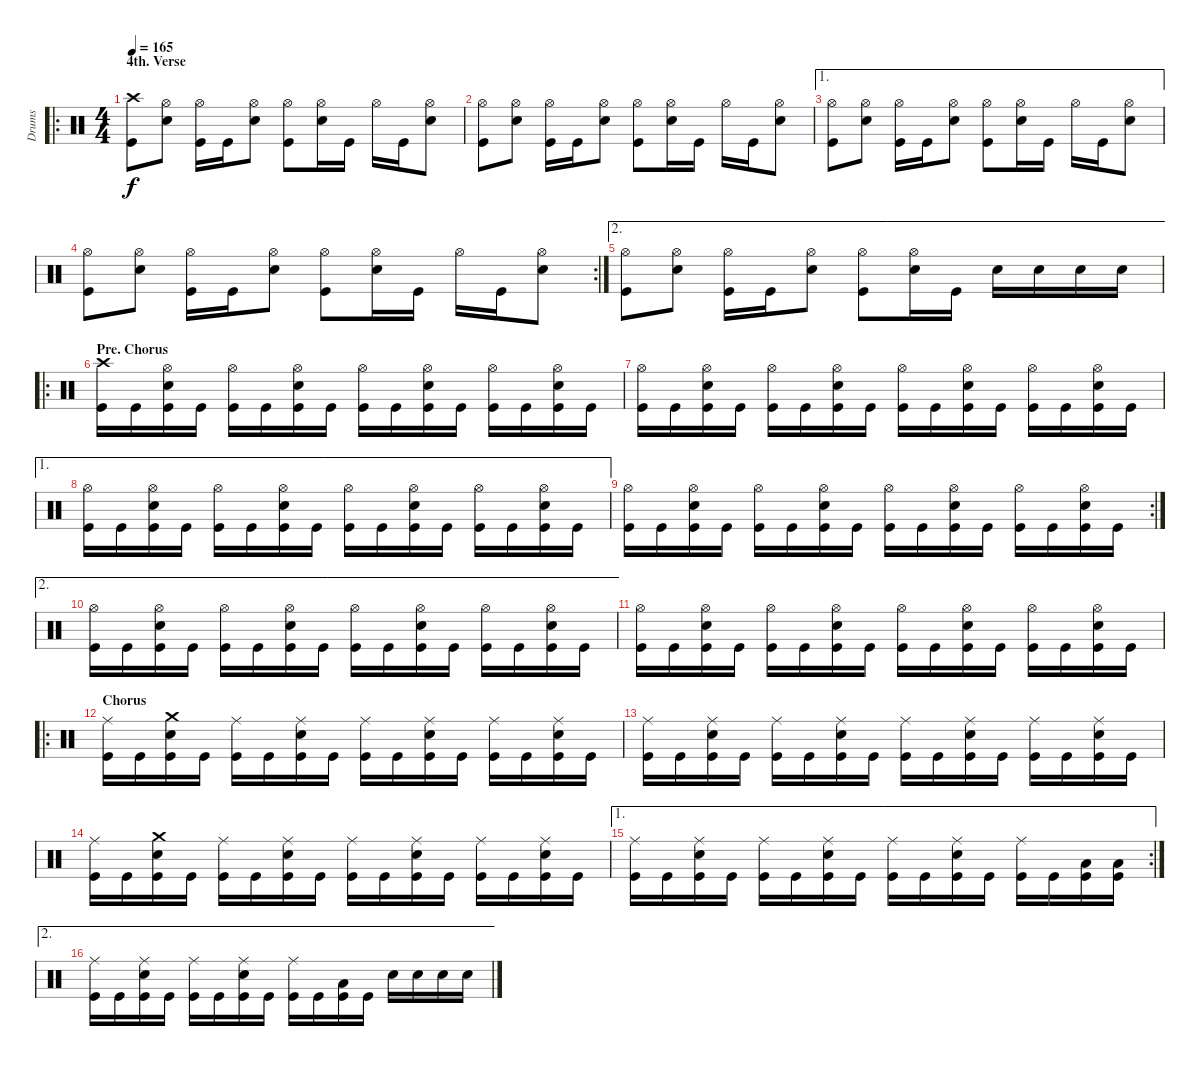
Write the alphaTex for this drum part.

\track ("Drums" "Drums") {instrument percussion}
\staff {score}
\articulation defaults
\ro
\ts (4 4)
\section ("" "4th. Verse")
\tempo 165
\clef neutral
\ks c
("Crash high (hit)" "Kick (hit)").8{dy f} ("Hi-Hat (open)" "Snare (hit) 2").8 ("Hi-Hat (open)" "Kick (hit)").16 "Kick (hit)".16 ("Hi-Hat (open)" "Snare (hit) 2").8 ("Hi-Hat (open)" "Kick (hit)").8 ("Hi-Hat (open)" "Snare (hit) 2").16 "Kick (hit)".16 "Hi-Hat (open)".16 "Kick (hit)".16 ("Hi-Hat (open)" "Snare (hit) 2").8 |
("Hi-Hat (open)" "Kick (hit)").8 ("Hi-Hat (open)" "Snare (hit) 2").8 ("Hi-Hat (open)" "Kick (hit)").16 "Kick (hit)".16 ("Hi-Hat (open)" "Snare (hit) 2").8 ("Hi-Hat (open)" "Kick (hit)").8 ("Hi-Hat (open)" "Snare (hit) 2").16 "Kick (hit)".16 "Hi-Hat (open)".16 "Kick (hit)".16 ("Hi-Hat (open)" "Snare (hit) 2").8 |
\ae 1
("Hi-Hat (open)" "Kick (hit)").8 ("Hi-Hat (open)" "Snare (hit) 2").8 ("Hi-Hat (open)" "Kick (hit)").16 "Kick (hit)".16 ("Hi-Hat (open)" "Snare (hit) 2").8 ("Hi-Hat (open)" "Kick (hit)").8 ("Hi-Hat (open)" "Snare (hit) 2").16 "Kick (hit)".16 "Hi-Hat (open)".16 "Kick (hit)".16 ("Hi-Hat (open)" "Snare (hit) 2").8 |
\rc 2
("Hi-Hat (open)" "Kick (hit)").8 ("Hi-Hat (open)" "Snare (hit) 2").8 ("Hi-Hat (open)" "Kick (hit)").16 "Kick (hit)".16 ("Hi-Hat (open)" "Snare (hit) 2").8 ("Hi-Hat (open)" "Kick (hit)").8 ("Hi-Hat (open)" "Snare (hit) 2").16 "Kick (hit)".16 "Hi-Hat (open)".16 "Kick (hit)".16 ("Hi-Hat (open)" "Snare (hit) 2").8 |
\ae 2
("Hi-Hat (open)" "Kick (hit)").8 ("Hi-Hat (open)" "Snare (hit) 2").8 ("Hi-Hat (open)" "Kick (hit)").16 "Kick (hit)".16 ("Hi-Hat (open)" "Snare (hit) 2").8 ("Hi-Hat (open)" "Kick (hit)").8 ("Hi-Hat (open)" "Snare (hit) 2").16 "Kick (hit)".16 "Snare (hit) 2".16 "Snare (hit) 2".16 "Snare (hit) 2".16 "Snare (hit) 2".16 |
\ro
\section ("" "Pre. Chorus")
("Crash high (hit)" "Kick (hit)").16 "Kick (hit)".16 ("Hi-Hat (open)" "Snare (hit) 2" "Kick (hit)").16 "Kick (hit)".16 ("Hi-Hat (open)" "Kick (hit)").16 "Kick (hit)".16 ("Hi-Hat (open)" "Snare (hit) 2" "Kick (hit)").16 "Kick (hit)".16 ("Hi-Hat (open)" "Kick (hit)").16 "Kick (hit)".16 ("Hi-Hat (open)" "Snare (hit) 2" "Kick (hit)").16 "Kick (hit)".16 ("Hi-Hat (open)" "Kick (hit)").16 "Kick (hit)".16 ("Hi-Hat (open)" "Snare (hit) 2" "Kick (hit)").16 "Kick (hit)".16 |
("Hi-Hat (open)" "Kick (hit)").16 "Kick (hit)".16 ("Hi-Hat (open)" "Snare (hit) 2" "Kick (hit)").16 "Kick (hit)".16 ("Hi-Hat (open)" "Kick (hit)").16 "Kick (hit)".16 ("Hi-Hat (open)" "Snare (hit) 2" "Kick (hit)").16 "Kick (hit)".16 ("Hi-Hat (open)" "Kick (hit)").16 "Kick (hit)".16 ("Hi-Hat (open)" "Snare (hit) 2" "Kick (hit)").16 "Kick (hit)".16 ("Hi-Hat (open)" "Kick (hit)").16 "Kick (hit)".16 ("Hi-Hat (open)" "Snare (hit) 2" "Kick (hit)").16 "Kick (hit)".16 |
\ae 1
("Hi-Hat (open)" "Kick (hit)").16 "Kick (hit)".16 ("Hi-Hat (open)" "Snare (hit) 2" "Kick (hit)").16 "Kick (hit)".16 ("Hi-Hat (open)" "Kick (hit)").16 "Kick (hit)".16 ("Hi-Hat (open)" "Snare (hit) 2" "Kick (hit)").16 "Kick (hit)".16 ("Hi-Hat (open)" "Kick (hit)").16 "Kick (hit)".16 ("Hi-Hat (open)" "Snare (hit) 2" "Kick (hit)").16 "Kick (hit)".16 ("Hi-Hat (open)" "Kick (hit)").16 "Kick (hit)".16 ("Hi-Hat (open)" "Snare (hit) 2" "Kick (hit)").16 "Kick (hit)".16 |
\rc 2
("Hi-Hat (open)" "Kick (hit)").16 "Kick (hit)".16 ("Hi-Hat (open)" "Snare (hit) 2" "Kick (hit)").16 "Kick (hit)".16 ("Hi-Hat (open)" "Kick (hit)").16 "Kick (hit)".16 ("Hi-Hat (open)" "Snare (hit) 2" "Kick (hit)").16 "Kick (hit)".16 ("Hi-Hat (open)" "Kick (hit)").16 "Kick (hit)".16 ("Hi-Hat (open)" "Snare (hit) 2" "Kick (hit)").16 "Kick (hit)".16 ("Hi-Hat (open)" "Kick (hit)").16 "Kick (hit)".16 ("Hi-Hat (open)" "Snare (hit) 2" "Kick (hit)").16 "Kick (hit)".16 |
\ae 2
("Hi-Hat (open)" "Kick (hit)").16 "Kick (hit)".16 ("Hi-Hat (open)" "Snare (hit) 2" "Kick (hit)").16 "Kick (hit)".16 ("Hi-Hat (open)" "Kick (hit)").16 "Kick (hit)".16 ("Hi-Hat (open)" "Snare (hit) 2" "Kick (hit)").16 "Kick (hit)".16 ("Hi-Hat (open)" "Kick (hit)").16 "Kick (hit)".16 ("Hi-Hat (open)" "Snare (hit) 2" "Kick (hit)").16 "Kick (hit)".16 ("Hi-Hat (open)" "Kick (hit)").16 "Kick (hit)".16 ("Hi-Hat (open)" "Snare (hit) 2" "Kick (hit)").16 "Kick (hit)".16 |
("Hi-Hat (open)" "Kick (hit)").16 "Kick (hit)".16 ("Hi-Hat (open)" "Snare (hit) 2" "Kick (hit)").16 "Kick (hit)".16 ("Hi-Hat (open)" "Kick (hit)").16 "Kick (hit)".16 ("Hi-Hat (open)" "Snare (hit) 2" "Kick (hit)").16 "Kick (hit)".16 ("Hi-Hat (open)" "Kick (hit)").16 "Kick (hit)".16 ("Hi-Hat (open)" "Snare (hit) 2" "Kick (hit)").16 "Kick (hit)".16 ("Hi-Hat (open)" "Kick (hit)").16 "Kick (hit)".16 ("Hi-Hat (open)" "Snare (hit) 2" "Kick (hit)").16 "Kick (hit)".16 |
\ro
\section ("" "Chorus")
("Ride (middle)" "Kick (hit)").16 "Kick (hit)".16 ("Crash medium (hit)" "Snare (hit) 2" "Kick (hit)").16 "Kick (hit)".16 ("Ride (middle)" "Kick (hit)").16 "Kick (hit)".16 ("Ride (middle)" "Snare (hit) 2" "Kick (hit)").16 "Kick (hit)".16 ("Ride (middle)" "Kick (hit)").16 "Kick (hit)".16 ("Ride (middle)" "Snare (hit) 2" "Kick (hit)").16 "Kick (hit)".16 ("Ride (middle)" "Kick (hit)").16 "Kick (hit)".16 ("Ride (middle)" "Snare (hit) 2" "Kick (hit)").16 "Kick (hit)".16 |
("Ride (middle)" "Kick (hit)").16 "Kick (hit)".16 ("Ride (middle)" "Snare (hit) 2" "Kick (hit)").16 "Kick (hit)".16 ("Ride (middle)" "Kick (hit)").16 "Kick (hit)".16 ("Ride (middle)" "Snare (hit) 2" "Kick (hit)").16 "Kick (hit)".16 ("Ride (middle)" "Kick (hit)").16 "Kick (hit)".16 ("Ride (middle)" "Snare (hit) 2" "Kick (hit)").16 "Kick (hit)".16 ("Ride (middle)" "Kick (hit)").16 "Kick (hit)".16 ("Ride (middle)" "Snare (hit) 2" "Kick (hit)").16 "Kick (hit)".16 |
("Ride (middle)" "Kick (hit)").16 "Kick (hit)".16 ("Crash medium (hit)" "Snare (hit) 2" "Kick (hit)").16 "Kick (hit)".16 ("Ride (middle)" "Kick (hit)").16 "Kick (hit)".16 ("Ride (middle)" "Snare (hit) 2" "Kick (hit)").16 "Kick (hit)".16 ("Ride (middle)" "Kick (hit)").16 "Kick (hit)".16 ("Ride (middle)" "Snare (hit) 2" "Kick (hit)").16 "Kick (hit)".16 ("Ride (middle)" "Kick (hit)").16 "Kick (hit)".16 ("Ride (middle)" "Snare (hit) 2" "Kick (hit)").16 "Kick (hit)".16 |
\ae 1
\rc 2
("Ride (middle)" "Kick (hit)").16 "Kick (hit)".16 ("Ride (middle)" "Snare (hit) 2" "Kick (hit)").16 "Kick (hit)".16 ("Ride (middle)" "Kick (hit)").16 "Kick (hit)".16 ("Ride (middle)" "Snare (hit) 2" "Kick (hit)").16 "Kick (hit)".16 ("Ride (middle)" "Kick (hit)").16 "Kick (hit)".16 ("Ride (middle)" "Snare (hit) 2" "Kick (hit)").16 "Kick (hit)".16 ("Ride (middle)" "Kick (hit)").16 "Kick (hit)".16 ("Low Tom (hit)" "Kick (hit)").16 ("Low Tom (hit)" "Kick (hit)").16 |
\ae 2
("Ride (middle)" "Kick (hit)").16 "Kick (hit)".16 ("Ride (middle)" "Snare (hit) 2" "Kick (hit)").16 "Kick (hit)".16 ("Ride (middle)" "Kick (hit)").16 "Kick (hit)".16 ("Ride (middle)" "Snare (hit) 2" "Kick (hit)").16 "Kick (hit)".16 ("Ride (middle)" "Kick (hit)").16 "Kick (hit)".16 ("Low Tom (hit)" "Kick (hit)").16 "Kick (hit)".16 "Snare (hit) 2".16 "Snare (hit) 2".16 "Snare (hit) 2".16 "Snare (hit) 2".16
